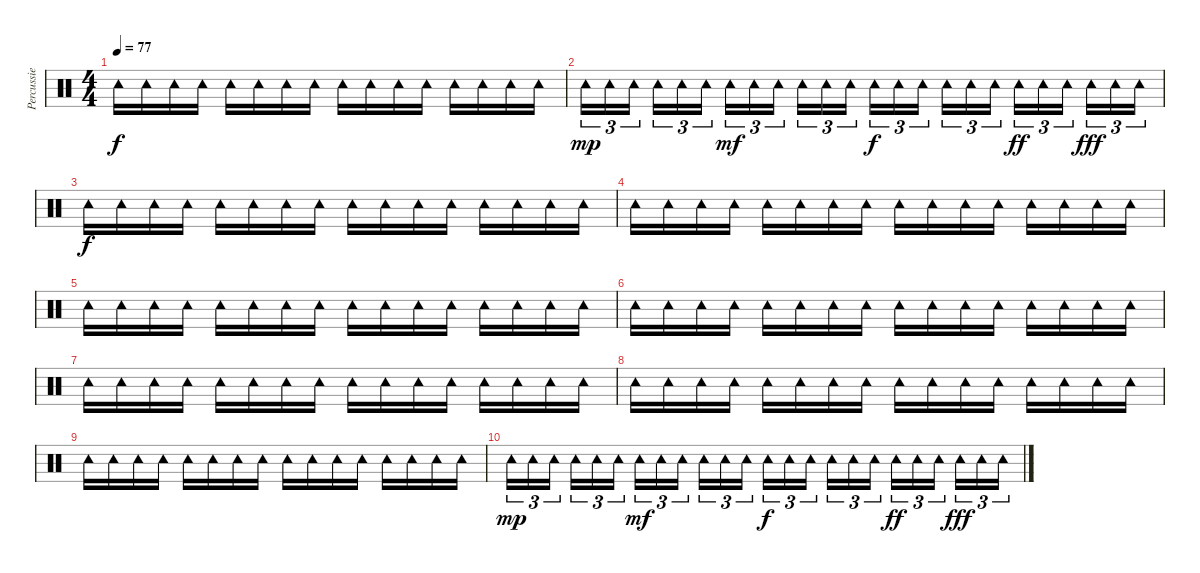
\track ("Percussie" "Percussie") {instrument percussion}
\staff {score}
\articulation defaults
\ts (4 4)
\tempo 77
\clef neutral
\ks c "Tambourine (hit)".16{dy f} "Tambourine (hit)".16 "Tambourine (hit)".16 "Tambourine (hit)".16 "Tambourine (hit)".16 "Tambourine (hit)".16 "Tambourine (hit)".16 "Tambourine (hit)".16 "Tambourine (hit)".16 "Tambourine (hit)".16 "Tambourine (hit)".16 "Tambourine (hit)".16 "Tambourine (hit)".16 "Tambourine (hit)".16 "Tambourine (hit)".16 "Tambourine (hit)".16
|
"Tambourine (hit)".16{tu (3 2) dy mp} "Tambourine (hit)".16{tu (3 2)} "Tambourine (hit)".16{tu (3 2) beam splitsecondary} "Tambourine (hit)".16{tu (3 2)} "Tambourine (hit)".16{tu (3 2)} "Tambourine (hit)".16{tu (3 2)} "Tambourine (hit)".16{tu (3 2) dy mf} "Tambourine (hit)".16{tu (3 2)} "Tambourine (hit)".16{tu (3 2) beam splitsecondary} "Tambourine (hit)".16{tu (3 2)} "Tambourine (hit)".16{tu (3 2)} "Tambourine (hit)".16{tu (3 2)} "Tambourine (hit)".16{tu (3 2) dy f} "Tambourine (hit)".16{tu (3 2)} "Tambourine (hit)".16{tu (3 2) beam splitsecondary} "Tambourine (hit)".16{tu (3 2)} "Tambourine (hit)".16{tu (3 2)} "Tambourine (hit)".16{tu (3 2)} "Tambourine (hit)".16{tu (3 2) dy ff} "Tambourine (hit)".16{tu (3 2)} "Tambourine (hit)".16{tu (3 2) beam splitsecondary} "Tambourine (hit)".16{tu (3 2) dy fff} "Tambourine (hit)".16{tu (3 2)} "Tambourine (hit)".16{tu (3 2)} |
"Tambourine (hit)".16{dy f volume 10} "Tambourine (hit)".16 "Tambourine (hit)".16 "Tambourine (hit)".16 "Tambourine (hit)".16 "Tambourine (hit)".16 "Tambourine (hit)".16 "Tambourine (hit)".16 "Tambourine (hit)".16 "Tambourine (hit)".16 "Tambourine (hit)".16 "Tambourine (hit)".16 "Tambourine (hit)".16 "Tambourine (hit)".16 "Tambourine (hit)".16 "Tambourine (hit)".16 |
"Tambourine (hit)".16 "Tambourine (hit)".16 "Tambourine (hit)".16 "Tambourine (hit)".16 "Tambourine (hit)".16 "Tambourine (hit)".16 "Tambourine (hit)".16 "Tambourine (hit)".16 "Tambourine (hit)".16 "Tambourine (hit)".16 "Tambourine (hit)".16 "Tambourine (hit)".16 "Tambourine (hit)".16 "Tambourine (hit)".16 "Tambourine (hit)".16 "Tambourine (hit)".16 |
"Tambourine (hit)".16{volume 6} "Tambourine (hit)".16 "Tambourine (hit)".16 "Tambourine (hit)".16 "Tambourine (hit)".16 "Tambourine (hit)".16 "Tambourine (hit)".16 "Tambourine (hit)".16 "Tambourine (hit)".16 "Tambourine (hit)".16 "Tambourine (hit)".16 "Tambourine (hit)".16 "Tambourine (hit)".16 "Tambourine (hit)".16 "Tambourine (hit)".16 "Tambourine (hit)".16 |
"Tambourine (hit)".16 "Tambourine (hit)".16 "Tambourine (hit)".16 "Tambourine (hit)".16 "Tambourine (hit)".16 "Tambourine (hit)".16 "Tambourine (hit)".16 "Tambourine (hit)".16 "Tambourine (hit)".16 "Tambourine (hit)".16 "Tambourine (hit)".16 "Tambourine (hit)".16 "Tambourine (hit)".16 "Tambourine (hit)".16 "Tambourine (hit)".16 "Tambourine (hit)".16 |
"Tambourine (hit)".16{volume 3} "Tambourine (hit)".16 "Tambourine (hit)".16 "Tambourine (hit)".16 "Tambourine (hit)".16 "Tambourine (hit)".16 "Tambourine (hit)".16 "Tambourine (hit)".16 "Tambourine (hit)".16 "Tambourine (hit)".16 "Tambourine (hit)".16 "Tambourine (hit)".16 "Tambourine (hit)".16 "Tambourine (hit)".16 "Tambourine (hit)".16 "Tambourine (hit)".16 |
"Tambourine (hit)".16 "Tambourine (hit)".16 "Tambourine (hit)".16 "Tambourine (hit)".16 "Tambourine (hit)".16 "Tambourine (hit)".16 "Tambourine (hit)".16 "Tambourine (hit)".16 "Tambourine (hit)".16 "Tambourine (hit)".16 "Tambourine (hit)".16 "Tambourine (hit)".16 "Tambourine (hit)".16 "Tambourine (hit)".16 "Tambourine (hit)".16 "Tambourine (hit)".16 |
"Tambourine (hit)".16{volume 0} "Tambourine (hit)".16 "Tambourine (hit)".16 "Tambourine (hit)".16 "Tambourine (hit)".16 "Tambourine (hit)".16 "Tambourine (hit)".16 "Tambourine (hit)".16 "Tambourine (hit)".16 "Tambourine (hit)".16 "Tambourine (hit)".16 "Tambourine (hit)".16 "Tambourine (hit)".16 "Tambourine (hit)".16 "Tambourine (hit)".16 "Tambourine (hit)".16 |
"Tambourine (hit)".16{tu (3 2) dy mp} "Tambourine (hit)".16{tu (3 2)} "Tambourine (hit)".16{tu (3 2) beam splitsecondary} "Tambourine (hit)".16{tu (3 2)} "Tambourine (hit)".16{tu (3 2)} "Tambourine (hit)".16{tu (3 2)} "Tambourine (hit)".16{tu (3 2) dy mf} "Tambourine (hit)".16{tu (3 2)} "Tambourine (hit)".16{tu (3 2) beam splitsecondary} "Tambourine (hit)".16{tu (3 2)} "Tambourine (hit)".16{tu (3 2)} "Tambourine (hit)".16{tu (3 2)} "Tambourine (hit)".16{tu (3 2) dy f} "Tambourine (hit)".16{tu (3 2)} "Tambourine (hit)".16{tu (3 2) beam splitsecondary} "Tambourine (hit)".16{tu (3 2)} "Tambourine (hit)".16{tu (3 2)} "Tambourine (hit)".16{tu (3 2)} "Tambourine (hit)".16{tu (3 2) dy ff} "Tambourine (hit)".16{tu (3 2)} "Tambourine (hit)".16{tu (3 2) beam splitsecondary} "Tambourine (hit)".16{tu (3 2) dy fff} "Tambourine (hit)".16{tu (3 2)} "Tambourine (hit)".16{tu (3 2)}
